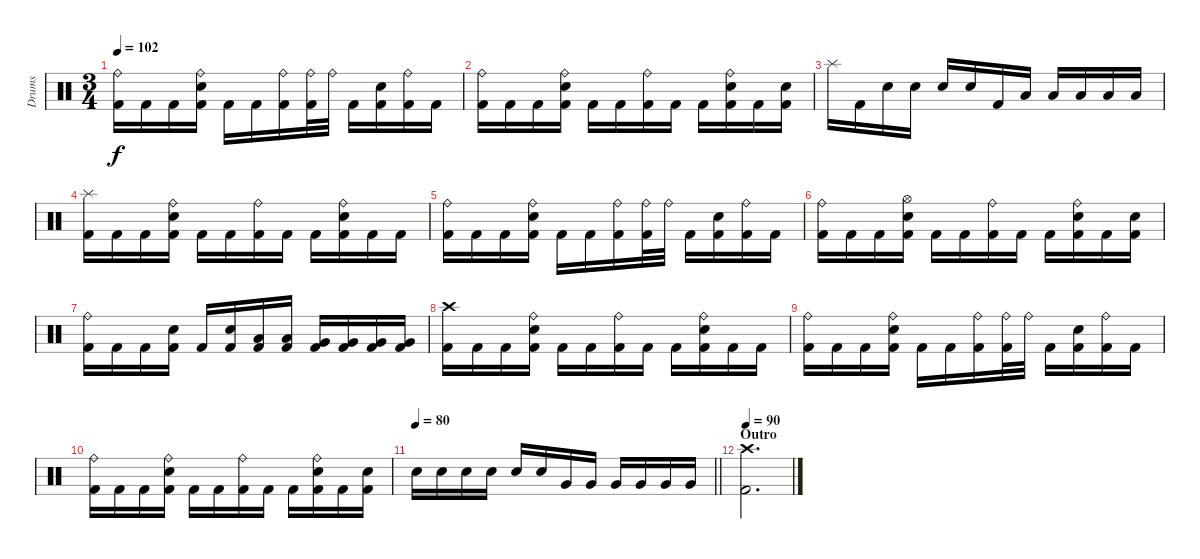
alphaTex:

\track ("Drums" "Drums") {instrument percussion}
\staff {score}
\articulation defaults
\ts (3 4)
\tempo 102
\clef neutral
\ks c
("Ride (bell)" "Kick (hit) 2").16{dy f} "Kick (hit) 2".16 "Kick (hit) 2".16 ("Snare (hit) 2" "Ride (bell)" "Kick (hit) 2").16 "Kick (hit) 2".16 "Kick (hit) 2".16 ("Ride (bell)" "Kick (hit) 2").16 ("Ride (bell)" "Kick (hit) 2").32 "Ride (bell)".32 "Kick (hit) 2".16 ("Snare (hit) 2" "Kick (hit) 2").16 ("Ride (bell)" "Kick (hit) 2").16 "Kick (hit) 2".16 |
("Ride (bell)" "Kick (hit) 2").16 "Kick (hit) 2".16 "Kick (hit) 2".16 ("Snare (hit) 2" "Ride (bell)" "Kick (hit) 2").16 "Kick (hit) 2".16 "Kick (hit) 2".16 ("Ride (bell)" "Kick (hit) 2").16 "Kick (hit) 2".16 "Kick (hit) 2".16 ("Snare (hit) 2" "Ride (bell)" "Kick (hit) 2").16 "Kick (hit) 2".16 ("Snare (hit) 2" "Kick (hit) 2").16 |
"Splash (hit)".16 "Kick (hit) 2".16 "Snare (hit) 2".16 "Snare (hit) 2".16 "Snare (hit) 2".16 "Snare (hit) 2".16 "Kick (hit) 2".16 "Low Tom (hit)".16 "Low Tom (hit)".16 "Low Tom (hit)".16 "Low Tom (hit)".16 "Low Tom (hit)".16 |
("Splash (hit)" "Kick (hit) 2").16 "Kick (hit) 2".16 "Kick (hit) 2".16 ("Snare (hit) 2" "Ride (bell)" "Kick (hit) 2").16 "Kick (hit) 2".16 "Kick (hit) 2".16 ("Ride (bell)" "Kick (hit) 2").16 "Kick (hit) 2".16 "Kick (hit) 2".16 ("Snare (hit) 2" "Ride (bell)" "Kick (hit) 2").16 "Kick (hit) 2".16 "Kick (hit) 2".16 |
("Ride (bell)" "Kick (hit) 2").16 "Kick (hit) 2".16 "Kick (hit) 2".16 ("Snare (hit) 2" "Ride (bell)" "Kick (hit) 2").16 "Kick (hit) 2".16 "Kick (hit) 2".16 ("Ride (bell)" "Kick (hit) 2").16 ("Ride (bell)" "Kick (hit) 2").32 "Ride (bell)".32 "Kick (hit) 2".16 ("Snare (hit) 2" "Kick (hit) 2").16 ("Ride (bell)" "Kick (hit) 2").16 "Kick (hit) 2".16 |
("Ride (bell)" "Kick (hit) 2").16 "Kick (hit) 2".16 "Kick (hit) 2".16 ("Snare (hit) 2" "Hi-Hat (open)" "Kick (hit) 2").16 "Kick (hit) 2".16 "Kick (hit) 2".16 ("Ride (bell)" "Kick (hit) 2").16 "Kick (hit) 2".16 "Kick (hit) 2".16 ("Snare (hit) 2" "Ride (bell)" "Kick (hit) 2").16 "Kick (hit) 2".16 ("Snare (hit) 2" "Kick (hit) 2").16 |
("Ride (bell)" "Kick (hit) 2").16 "Kick (hit) 2".16 "Kick (hit) 2".16 ("Snare (hit) 2" "Kick (hit) 2").16 "Kick (hit) 2".16 ("Snare (hit) 2" "Kick (hit) 2").16 ("Low Tom (hit)" "Kick (hit) 2").16 ("Low Tom (hit)" "Kick (hit) 2").16 ("Very Low Tom (hit)" "Kick (hit) 2").16 ("Very Low Tom (hit)" "Kick (hit) 2").16 ("Very Low Tom (hit)" "Kick (hit) 2").16 ("Very Low Tom (hit)" "Kick (hit) 2").16 |
("Crash high (hit)" "Kick (hit) 2").16 "Kick (hit) 2".16 "Kick (hit) 2".16 ("Snare (hit) 2" "Ride (bell)" "Kick (hit) 2").16 "Kick (hit) 2".16 "Kick (hit) 2".16 ("Ride (bell)" "Kick (hit) 2").16 "Kick (hit) 2".16 "Kick (hit) 2".16 ("Snare (hit) 2" "Ride (bell)" "Kick (hit) 2").16 "Kick (hit) 2".16 "Kick (hit) 2".16 |
("Ride (bell)" "Kick (hit) 2").16 "Kick (hit) 2".16 "Kick (hit) 2".16 ("Snare (hit) 2" "Ride (bell)" "Kick (hit) 2").16 "Kick (hit) 2".16 "Kick (hit) 2".16 ("Ride (bell)" "Kick (hit) 2").16 ("Ride (bell)" "Kick (hit) 2").32 "Ride (bell)".32 "Kick (hit) 2".16 ("Snare (hit) 2" "Kick (hit) 2").16 ("Ride (bell)" "Kick (hit) 2").16 "Kick (hit) 2".16 |
("Ride (bell)" "Kick (hit) 2").16 "Kick (hit) 2".16 "Kick (hit) 2".16 ("Snare (hit) 2" "Ride (bell)" "Kick (hit) 2").16 "Kick (hit) 2".16 "Kick (hit) 2".16 ("Ride (bell)" "Kick (hit) 2").16 "Kick (hit) 2".16 "Kick (hit) 2".16 ("Snare (hit) 2" "Ride (bell)" "Kick (hit) 2").16 "Kick (hit) 2".16 ("Snare (hit) 2" "Kick (hit) 2").16 |
\tempo 80
\barLineRight lightlight "Snare (hit) 2".16 "Snare (hit) 2".16 "Snare (hit) 2".16 "Snare (hit) 2".16 "Snare (hit) 2".16 "Snare (hit) 2".16 "Very Low Tom (hit)".16 "Very Low Tom (hit)".16 "Very Low Tom (hit)".16 "Very Low Tom (hit)".16 "Very Low Tom (hit)".16 "Very Low Tom (hit)".16
|
\section ("" "Outro")
\tempo 90
("Crash high (hit)" "Kick (hit) 2").2{d}
